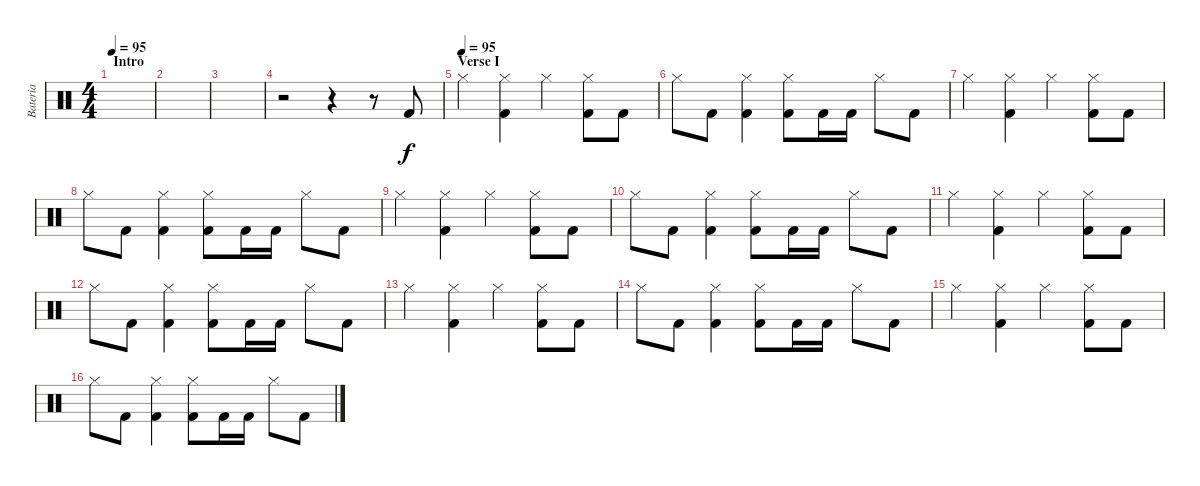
\track ("Bateria" "Bateria") {instrument percussion}
\staff {score}
\articulation defaults
\ts (4 4)
\section ("" "Intro")
\tempo 95
\tempo 85
\tempo 95
\clef neutral
\ks c
|
|
|
r.2 r.4 r.8 "Kick (hit) 2".8 |
\section ("" "Verse I")
\tempo (95)
"Hi-Hat (closed)".4 ("Hi-Hat (closed)" "Kick (hit) 2").4 "Hi-Hat (closed)".4 ("Hi-Hat (closed)" "Kick (hit) 2").8 "Kick (hit) 2".8 |
"Hi-Hat (closed)".8 "Kick (hit) 2".8 ("Hi-Hat (closed)" "Kick (hit) 2").4 ("Hi-Hat (closed)" "Kick (hit) 2").8 "Kick (hit) 2".16 "Kick (hit) 2".16 "Hi-Hat (closed)".8 "Kick (hit) 2".8 |
"Hi-Hat (closed)".4 ("Hi-Hat (closed)" "Kick (hit) 2").4 "Hi-Hat (closed)".4 ("Hi-Hat (closed)" "Kick (hit) 2").8 "Kick (hit) 2".8 |
"Hi-Hat (closed)".8 "Kick (hit) 2".8 ("Hi-Hat (closed)" "Kick (hit) 2").4 ("Hi-Hat (closed)" "Kick (hit) 2").8 "Kick (hit) 2".16 "Kick (hit) 2".16 "Hi-Hat (closed)".8 "Kick (hit) 2".8 |
"Hi-Hat (closed)".4 ("Hi-Hat (closed)" "Kick (hit) 2").4 "Hi-Hat (closed)".4 ("Hi-Hat (closed)" "Kick (hit) 2").8 "Kick (hit) 2".8 |
"Hi-Hat (closed)".8 "Kick (hit) 2".8 ("Hi-Hat (closed)" "Kick (hit) 2").4 ("Hi-Hat (closed)" "Kick (hit) 2").8 "Kick (hit) 2".16 "Kick (hit) 2".16 "Hi-Hat (closed)".8 "Kick (hit) 2".8 |
"Hi-Hat (closed)".4 ("Hi-Hat (closed)" "Kick (hit) 2").4 "Hi-Hat (closed)".4 ("Hi-Hat (closed)" "Kick (hit) 2").8 "Kick (hit) 2".8 |
"Hi-Hat (closed)".8 "Kick (hit) 2".8 ("Hi-Hat (closed)" "Kick (hit) 2").4 ("Hi-Hat (closed)" "Kick (hit) 2").8 "Kick (hit) 2".16 "Kick (hit) 2".16 "Hi-Hat (closed)".8 "Kick (hit) 2".8 |
"Hi-Hat (closed)".4 ("Hi-Hat (closed)" "Kick (hit) 2").4 "Hi-Hat (closed)".4 ("Hi-Hat (closed)" "Kick (hit) 2").8 "Kick (hit) 2".8 |
"Hi-Hat (closed)".8 "Kick (hit) 2".8 ("Hi-Hat (closed)" "Kick (hit) 2").4 ("Hi-Hat (closed)" "Kick (hit) 2").8 "Kick (hit) 2".16 "Kick (hit) 2".16 "Hi-Hat (closed)".8 "Kick (hit) 2".8 |
"Hi-Hat (closed)".4 ("Hi-Hat (closed)" "Kick (hit) 2").4 "Hi-Hat (closed)".4 ("Hi-Hat (closed)" "Kick (hit) 2").8 "Kick (hit) 2".8 |
"Hi-Hat (closed)".8 "Kick (hit) 2".8 ("Hi-Hat (closed)" "Kick (hit) 2").4 ("Hi-Hat (closed)" "Kick (hit) 2").8 "Kick (hit) 2".16 "Kick (hit) 2".16 "Hi-Hat (closed)".8 "Kick (hit) 2".8
